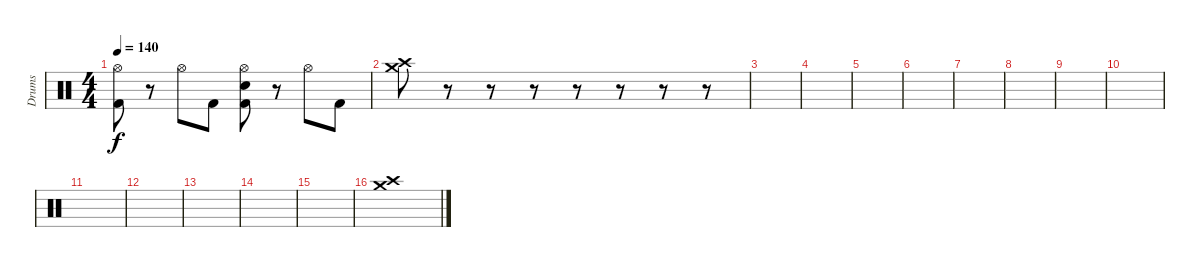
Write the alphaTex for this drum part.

\track ("Drums" "Drums") {instrument percussion}
\staff {score}
\articulation defaults
\ts (4 4)
\tempo 140
\clef neutral
\ks c
("Hi-Hat (open)" "Kick (hit) 2").8{dy f} r.8 "Hi-Hat (open)".8 "Kick (hit) 2".8 ("Hi-Hat (open)" "Snare (hit) 2" "Kick (hit) 2").8 r.8 "Hi-Hat (open)".8 "Kick (hit) 2".8 |
("Crash high (hit)" "Crash medium (hit)").8 r.8 r.8 r.8 r.8 r.8 r.8 r.8 |
|
|
|
|
|
|
|
|
|
|
|
|
|
("Crash high (hit)" "Crash medium (hit)").1
